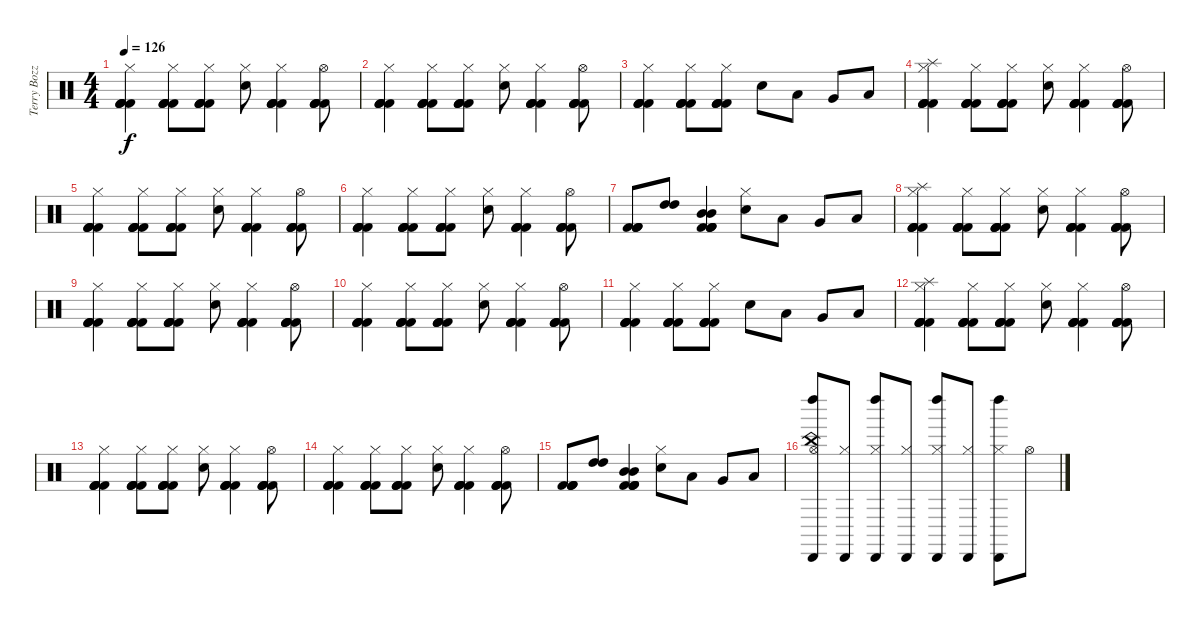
\track ("Terry Bozzio" "Terry Bozz") {instrument percussion}
\staff {score}
\articulation defaults
\ts (4 4)
\tempo 126
\clef neutral
\ks c
("Hi-Hat (closed)" "Kick (hit) 2" "Kick (hit) 2" "Kick (hit) 2" "Kick (hit) 2").4{dy f} ("Hi-Hat (closed)" "Kick (hit) 2" "Kick (hit) 2" "Kick (hit) 2" "Kick (hit) 2").8 ("Hi-Hat (closed)" "Kick (hit) 2" "Kick (hit) 2" "Kick (hit) 2" "Kick (hit) 2").8 ("Hi-Hat (closed)" "Snare (hit) 2").8 ("Hi-Hat (closed)" "Kick (hit) 2" "Kick (hit) 2" "Kick (hit) 2" "Kick (hit) 2").4 ("Hi-Hat (open)" "Kick (hit) 2" "Kick (hit) 2" "Kick (hit) 2" "Kick (hit) 2").8 |
("Hi-Hat (closed)" "Kick (hit) 2" "Kick (hit) 2" "Kick (hit) 2" "Kick (hit) 2").4 ("Hi-Hat (closed)" "Kick (hit) 2" "Kick (hit) 2" "Kick (hit) 2" "Kick (hit) 2").8 ("Hi-Hat (closed)" "Kick (hit) 2" "Kick (hit) 2" "Kick (hit) 2" "Kick (hit) 2").8 ("Hi-Hat (closed)" "Snare (hit) 2").8 ("Hi-Hat (closed)" "Kick (hit) 2" "Kick (hit) 2" "Kick (hit) 2" "Kick (hit) 2").4 ("Hi-Hat (open)" "Kick (hit) 2" "Kick (hit) 2" "Kick (hit) 2" "Kick (hit) 2").8 |
("Hi-Hat (closed)" "Kick (hit) 2" "Kick (hit) 2" "Kick (hit) 2" "Kick (hit) 2").4 ("Hi-Hat (closed)" "Kick (hit) 2" "Kick (hit) 2" "Kick (hit) 2" "Kick (hit) 2").8 ("Hi-Hat (closed)" "Kick (hit) 2" "Kick (hit) 2" "Kick (hit) 2" "Kick (hit) 2").8 "Snare (hit) 2".8 "Low Tom (hit)".8 "Very Low Tom (hit)".8 "Low Floor Tom (hit)".8 |
("Splash (hit)" "Hi-Hat (closed)" "Kick (hit) 2" "Kick (hit) 2" "Kick (hit) 2" "Kick (hit) 2").4 ("Hi-Hat (closed)" "Kick (hit) 2" "Kick (hit) 2" "Kick (hit) 2" "Kick (hit) 2").8 ("Hi-Hat (closed)" "Kick (hit) 2" "Kick (hit) 2" "Kick (hit) 2" "Kick (hit) 2").8 ("Hi-Hat (closed)" "Snare (hit) 2").8 ("Hi-Hat (closed)" "Kick (hit) 2" "Kick (hit) 2" "Kick (hit) 2" "Kick (hit) 2").4 ("Hi-Hat (open)" "Kick (hit) 2" "Kick (hit) 2" "Kick (hit) 2" "Kick (hit) 2").8 |
("Hi-Hat (closed)" "Kick (hit) 2" "Kick (hit) 2" "Kick (hit) 2" "Kick (hit) 2").4 ("Hi-Hat (closed)" "Kick (hit) 2" "Kick (hit) 2" "Kick (hit) 2" "Kick (hit) 2").8 ("Hi-Hat (closed)" "Kick (hit) 2" "Kick (hit) 2" "Kick (hit) 2" "Kick (hit) 2").8 ("Hi-Hat (closed)" "Snare (hit) 2").8 ("Hi-Hat (closed)" "Kick (hit) 2" "Kick (hit) 2" "Kick (hit) 2" "Kick (hit) 2").4 ("Hi-Hat (open)" "Kick (hit) 2" "Kick (hit) 2" "Kick (hit) 2" "Kick (hit) 2").8 |
("Hi-Hat (closed)" "Kick (hit) 2" "Kick (hit) 2" "Kick (hit) 2" "Kick (hit) 2").4 ("Hi-Hat (closed)" "Kick (hit) 2" "Kick (hit) 2" "Kick (hit) 2" "Kick (hit) 2").8 ("Hi-Hat (closed)" "Kick (hit) 2" "Kick (hit) 2" "Kick (hit) 2" "Kick (hit) 2").8 ("Hi-Hat (closed)" "Snare (hit) 2").8 ("Hi-Hat (closed)" "Kick (hit) 2" "Kick (hit) 2" "Kick (hit) 2" "Kick (hit) 2").4 ("Hi-Hat (open)" "Kick (hit) 2" "Kick (hit) 2" "Kick (hit) 2" "Kick (hit) 2").8 |
("Kick (hit) 2" "Kick (hit) 2" "Kick (hit) 2" "Kick (hit) 2").8 ("High Tom (hit)" "High Tom (hit)").8 ("Mid Tom (hit)" "Mid Tom (hit)" "Kick (hit) 2" "Kick (hit) 2" "Kick (hit) 2" "Kick (hit) 2").4 ("Hi-Hat (closed)" "Snare (hit) 2").8 "Low Tom (hit)".8 "Very Low Tom (hit)".8 "Low Floor Tom (hit)".8 |
("Splash (hit)" "Hi-Hat (closed)" "Kick (hit) 2" "Kick (hit) 2" "Kick (hit) 2" "Kick (hit) 2").4 ("Hi-Hat (closed)" "Kick (hit) 2" "Kick (hit) 2" "Kick (hit) 2" "Kick (hit) 2").8 ("Hi-Hat (closed)" "Kick (hit) 2" "Kick (hit) 2" "Kick (hit) 2" "Kick (hit) 2").8 ("Hi-Hat (closed)" "Snare (hit) 2").8 ("Hi-Hat (closed)" "Kick (hit) 2" "Kick (hit) 2" "Kick (hit) 2" "Kick (hit) 2").4 ("Hi-Hat (open)" "Kick (hit) 2" "Kick (hit) 2" "Kick (hit) 2" "Kick (hit) 2").8 |
("Hi-Hat (closed)" "Kick (hit) 2" "Kick (hit) 2" "Kick (hit) 2" "Kick (hit) 2").4 ("Hi-Hat (closed)" "Kick (hit) 2" "Kick (hit) 2" "Kick (hit) 2" "Kick (hit) 2").8 ("Hi-Hat (closed)" "Kick (hit) 2" "Kick (hit) 2" "Kick (hit) 2" "Kick (hit) 2").8 ("Hi-Hat (closed)" "Snare (hit) 2").8 ("Hi-Hat (closed)" "Kick (hit) 2" "Kick (hit) 2" "Kick (hit) 2" "Kick (hit) 2").4 ("Hi-Hat (open)" "Kick (hit) 2" "Kick (hit) 2" "Kick (hit) 2" "Kick (hit) 2").8 |
("Hi-Hat (closed)" "Kick (hit) 2" "Kick (hit) 2" "Kick (hit) 2" "Kick (hit) 2").4 ("Hi-Hat (closed)" "Kick (hit) 2" "Kick (hit) 2" "Kick (hit) 2" "Kick (hit) 2").8 ("Hi-Hat (closed)" "Kick (hit) 2" "Kick (hit) 2" "Kick (hit) 2" "Kick (hit) 2").8 ("Hi-Hat (closed)" "Snare (hit) 2").8 ("Hi-Hat (closed)" "Kick (hit) 2" "Kick (hit) 2" "Kick (hit) 2" "Kick (hit) 2").4 ("Hi-Hat (open)" "Kick (hit) 2" "Kick (hit) 2" "Kick (hit) 2" "Kick (hit) 2").8 |
("Hi-Hat (closed)" "Kick (hit) 2" "Kick (hit) 2" "Kick (hit) 2" "Kick (hit) 2").4 ("Hi-Hat (closed)" "Kick (hit) 2" "Kick (hit) 2" "Kick (hit) 2" "Kick (hit) 2").8 ("Hi-Hat (closed)" "Kick (hit) 2" "Kick (hit) 2" "Kick (hit) 2" "Kick (hit) 2").8 "Snare (hit) 2".8 "Low Tom (hit)".8 "Very Low Tom (hit)".8 "Low Floor Tom (hit)".8 |
("Splash (hit)" "Hi-Hat (closed)" "Kick (hit) 2" "Kick (hit) 2" "Kick (hit) 2" "Kick (hit) 2").4 ("Hi-Hat (closed)" "Kick (hit) 2" "Kick (hit) 2" "Kick (hit) 2" "Kick (hit) 2").8 ("Hi-Hat (closed)" "Kick (hit) 2" "Kick (hit) 2" "Kick (hit) 2" "Kick (hit) 2").8 ("Hi-Hat (closed)" "Snare (hit) 2").8 ("Hi-Hat (closed)" "Kick (hit) 2" "Kick (hit) 2" "Kick (hit) 2" "Kick (hit) 2").4 ("Hi-Hat (open)" "Kick (hit) 2" "Kick (hit) 2" "Kick (hit) 2" "Kick (hit) 2").8 |
("Hi-Hat (closed)" "Kick (hit) 2" "Kick (hit) 2" "Kick (hit) 2" "Kick (hit) 2").4 ("Hi-Hat (closed)" "Kick (hit) 2" "Kick (hit) 2" "Kick (hit) 2" "Kick (hit) 2").8 ("Hi-Hat (closed)" "Kick (hit) 2" "Kick (hit) 2" "Kick (hit) 2" "Kick (hit) 2").8 ("Hi-Hat (closed)" "Snare (hit) 2").8 ("Hi-Hat (closed)" "Kick (hit) 2" "Kick (hit) 2" "Kick (hit) 2" "Kick (hit) 2").4 ("Hi-Hat (open)" "Kick (hit) 2" "Kick (hit) 2" "Kick (hit) 2" "Kick (hit) 2").8 |
("Hi-Hat (closed)" "Kick (hit) 2" "Kick (hit) 2" "Kick (hit) 2" "Kick (hit) 2").4 ("Hi-Hat (closed)" "Kick (hit) 2" "Kick (hit) 2" "Kick (hit) 2" "Kick (hit) 2").8 ("Hi-Hat (closed)" "Kick (hit) 2" "Kick (hit) 2" "Kick (hit) 2" "Kick (hit) 2").8 ("Hi-Hat (closed)" "Snare (hit) 2").8 ("Hi-Hat (closed)" "Kick (hit) 2" "Kick (hit) 2" "Kick (hit) 2" "Kick (hit) 2").4 ("Hi-Hat (open)" "Kick (hit) 2" "Kick (hit) 2" "Kick (hit) 2" "Kick (hit) 2").8 |
("Kick (hit) 2" "Kick (hit) 2" "Kick (hit) 2" "Kick (hit) 2").8 ("High Tom (hit)" "High Tom (hit)").8 ("Mid Tom (hit)" "Mid Tom (hit)" "Kick (hit) 2" "Kick (hit) 2" "Kick (hit) 2" "Kick (hit) 2").4 ("Hi-Hat (closed)" "Snare (hit) 2").8 "Low Tom (hit)".8 "Very Low Tom (hit)".8 "Low Floor Tom (hit)".8 |
("China (hit)" "Hi-Hat (open)" "Cabasa (hit)" "Left Maraca (hit)").8{volume 10} ("Hi-Hat (closed)" "Cabasa (hit)").8 ("Hi-Hat (closed)" "Cabasa (hit)" "Left Maraca (hit)").8 ("Hi-Hat (closed)" "Cabasa (hit)").8 ("Hi-Hat (closed)" "Cabasa (hit)" "Left Maraca (hit)").8 ("Hi-Hat (closed)" "Cabasa (hit)").8 ("Hi-Hat (closed)" "Cabasa (hit)" "Left Maraca (hit)").8 "Hi-Hat (open)".8
